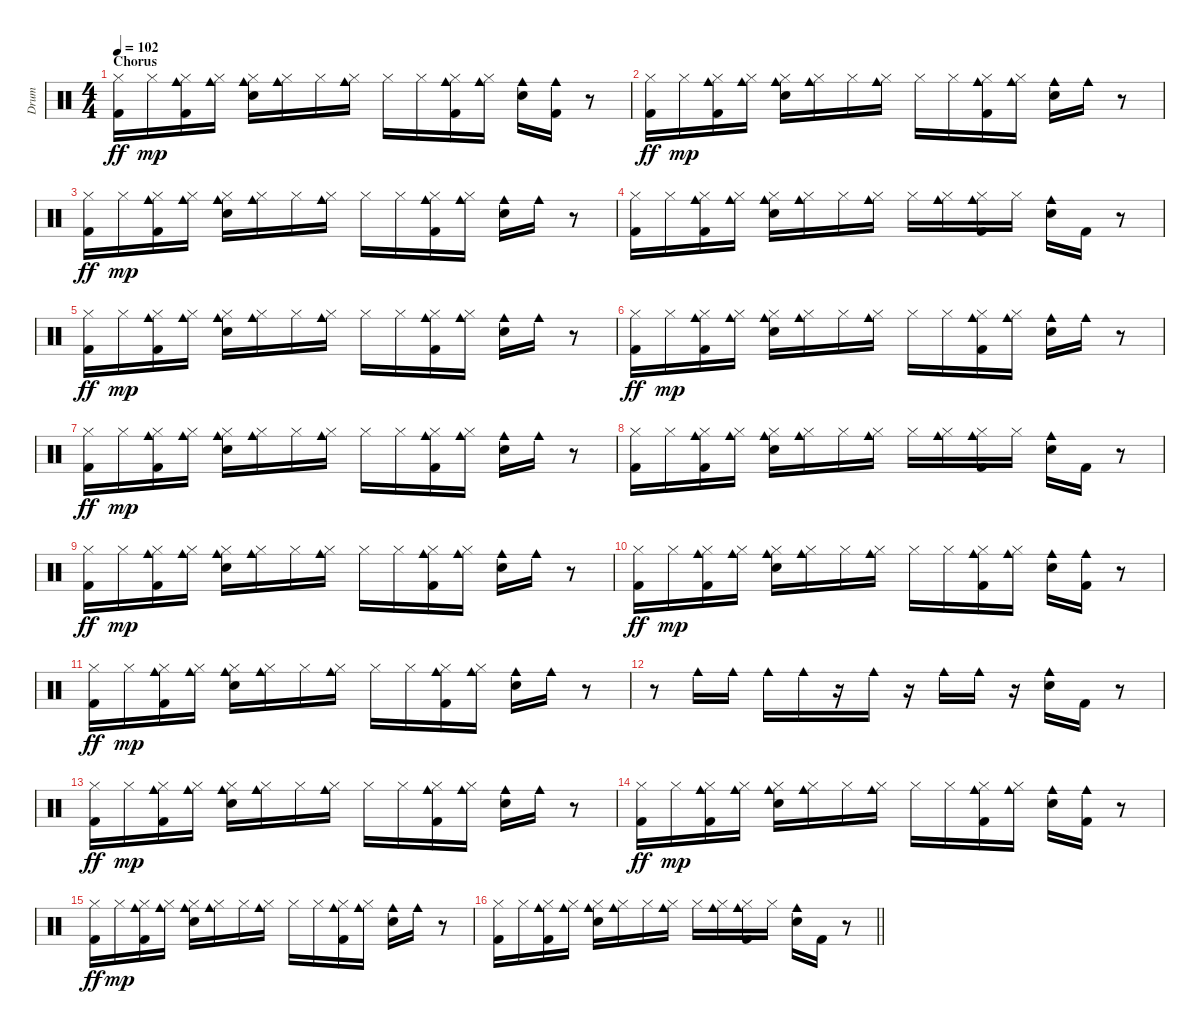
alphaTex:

\track ("Drum" "Drum") {instrument percussion}
\staff {score}
\articulation defaults
\ts (4 4)
\section ("" "Chorus")
\tempo 102
\clef neutral
\ks c
("Hi-Hat (closed)" "Kick (hit) 2").16{dy ff volume 12} "Hi-Hat (closed)".16{dy mp} ("Hi-Hat (closed)" "Kick (hit) 2" "Cowbell medium (hit)").16 ("Hi-Hat (closed)" "Cowbell medium (hit)").16 ("Electric Snare (hit)" "Hi-Hat (closed)" "Cowbell medium (hit)").16 ("Hi-Hat (closed)" "Cowbell medium (hit)").16 "Hi-Hat (closed)".16 ("Hi-Hat (closed)" "Cowbell medium (hit)").16 "Hi-Hat (closed)".16 "Hi-Hat (closed)".16 ("Hi-Hat (closed)" "Kick (hit) 2" "Cowbell medium (hit)").16 ("Hi-Hat (closed)" "Cowbell medium (hit)").16 ("Electric Snare (hit)" "Cowbell medium (hit)").16 ("Cowbell medium (hit)" "Kick (hit) 2").16 r.8 |
("Hi-Hat (closed)" "Kick (hit) 2").16{dy ff volume 12} "Hi-Hat (closed)".16{dy mp} ("Hi-Hat (closed)" "Kick (hit) 2" "Cowbell medium (hit)").16 ("Hi-Hat (closed)" "Cowbell medium (hit)").16 ("Electric Snare (hit)" "Hi-Hat (closed)" "Cowbell medium (hit)").16 ("Hi-Hat (closed)" "Cowbell medium (hit)").16 "Hi-Hat (closed)".16 ("Hi-Hat (closed)" "Cowbell medium (hit)").16 "Hi-Hat (closed)".16 "Hi-Hat (closed)".16 ("Hi-Hat (closed)" "Kick (hit) 2" "Cowbell medium (hit)").16 ("Hi-Hat (closed)" "Cowbell medium (hit)").16 ("Electric Snare (hit)" "Cowbell medium (hit)").16 "Cowbell medium (hit)".16 r.8 |
("Hi-Hat (closed)" "Kick (hit) 2").16{dy ff volume 12} "Hi-Hat (closed)".16{dy mp} ("Hi-Hat (closed)" "Kick (hit) 2" "Cowbell medium (hit)").16 ("Hi-Hat (closed)" "Cowbell medium (hit)").16 ("Electric Snare (hit)" "Hi-Hat (closed)" "Cowbell medium (hit)").16 ("Hi-Hat (closed)" "Cowbell medium (hit)").16 "Hi-Hat (closed)".16 ("Hi-Hat (closed)" "Cowbell medium (hit)").16 "Hi-Hat (closed)".16 "Hi-Hat (closed)".16 ("Hi-Hat (closed)" "Kick (hit) 2" "Cowbell medium (hit)").16 ("Hi-Hat (closed)" "Cowbell medium (hit)").16 ("Electric Snare (hit)" "Cowbell medium (hit)").16 "Cowbell medium (hit)".16 r.8 |
("Kick (hit) 2" "Hi-Hat (closed)").16{volume 12} "Hi-Hat (closed)".16 ("Kick (hit) 2" "Hi-Hat (closed)" "Cowbell medium (hit)").16 ("Hi-Hat (closed)" "Cowbell medium (hit)").16 ("Electric Snare (hit)" "Hi-Hat (closed)" "Cowbell medium (hit)").16 ("Hi-Hat (closed)" "Cowbell medium (hit)").16 "Hi-Hat (closed)".16 ("Hi-Hat (closed)" "Cowbell medium (hit)").16 "Hi-Hat (closed)".16 ("Hi-Hat (closed)" "Cowbell medium (hit)").16 ("Hi-Hat (closed)" "Kick (hit) 2" "Cowbell medium (hit)").16 "Hi-Hat (closed)".16 ("Electric Snare (hit)" "Cowbell medium (hit)").16 "Kick (hit) 2".16 r.8 |
("Hi-Hat (closed)" "Kick (hit) 2").16{dy ff volume 12} "Hi-Hat (closed)".16{dy mp} ("Hi-Hat (closed)" "Kick (hit) 2" "Cowbell medium (hit)").16 ("Hi-Hat (closed)" "Cowbell medium (hit)").16 ("Electric Snare (hit)" "Hi-Hat (closed)" "Cowbell medium (hit)").16 ("Hi-Hat (closed)" "Cowbell medium (hit)").16 "Hi-Hat (closed)".16 ("Hi-Hat (closed)" "Cowbell medium (hit)").16 "Hi-Hat (closed)".16 "Hi-Hat (closed)".16 ("Hi-Hat (closed)" "Kick (hit) 2" "Cowbell medium (hit)").16 ("Hi-Hat (closed)" "Cowbell medium (hit)").16 ("Electric Snare (hit)" "Cowbell medium (hit)").16 "Cowbell medium (hit)".16 r.8 |
("Hi-Hat (closed)" "Kick (hit) 2").16{dy ff volume 12} "Hi-Hat (closed)".16{dy mp} ("Hi-Hat (closed)" "Kick (hit) 2" "Cowbell medium (hit)").16 ("Hi-Hat (closed)" "Cowbell medium (hit)").16 ("Electric Snare (hit)" "Hi-Hat (closed)" "Cowbell medium (hit)").16 ("Hi-Hat (closed)" "Cowbell medium (hit)").16 "Hi-Hat (closed)".16 ("Hi-Hat (closed)" "Cowbell medium (hit)").16 "Hi-Hat (closed)".16 "Hi-Hat (closed)".16 ("Hi-Hat (closed)" "Kick (hit) 2" "Cowbell medium (hit)").16 ("Hi-Hat (closed)" "Cowbell medium (hit)").16 ("Electric Snare (hit)" "Cowbell medium (hit)").16 "Cowbell medium (hit)".16 r.8 |
("Hi-Hat (closed)" "Kick (hit) 2").16{dy ff volume 12} "Hi-Hat (closed)".16{dy mp} ("Hi-Hat (closed)" "Kick (hit) 2" "Cowbell medium (hit)").16 ("Hi-Hat (closed)" "Cowbell medium (hit)").16 ("Electric Snare (hit)" "Hi-Hat (closed)" "Cowbell medium (hit)").16 ("Hi-Hat (closed)" "Cowbell medium (hit)").16 "Hi-Hat (closed)".16 ("Hi-Hat (closed)" "Cowbell medium (hit)").16 "Hi-Hat (closed)".16 "Hi-Hat (closed)".16 ("Hi-Hat (closed)" "Kick (hit) 2" "Cowbell medium (hit)").16 ("Hi-Hat (closed)" "Cowbell medium (hit)").16 ("Electric Snare (hit)" "Cowbell medium (hit)").16 "Cowbell medium (hit)".16 r.8 |
("Kick (hit) 2" "Hi-Hat (closed)").16{volume 12} "Hi-Hat (closed)".16 ("Kick (hit) 2" "Hi-Hat (closed)" "Cowbell medium (hit)").16 ("Hi-Hat (closed)" "Cowbell medium (hit)").16 ("Electric Snare (hit)" "Hi-Hat (closed)" "Cowbell medium (hit)").16 ("Hi-Hat (closed)" "Cowbell medium (hit)").16 "Hi-Hat (closed)".16 ("Hi-Hat (closed)" "Cowbell medium (hit)").16 "Hi-Hat (closed)".16 ("Hi-Hat (closed)" "Cowbell medium (hit)").16 ("Hi-Hat (closed)" "Kick (hit) 2" "Cowbell medium (hit)").16 "Hi-Hat (closed)".16 ("Electric Snare (hit)" "Cowbell medium (hit)").16 "Kick (hit) 2".16 r.8 |
("Hi-Hat (closed)" "Kick (hit) 2").16{dy ff volume 12} "Hi-Hat (closed)".16{dy mp} ("Hi-Hat (closed)" "Kick (hit) 2" "Cowbell medium (hit)").16 ("Hi-Hat (closed)" "Cowbell medium (hit)").16 ("Electric Snare (hit)" "Hi-Hat (closed)" "Cowbell medium (hit)").16 ("Hi-Hat (closed)" "Cowbell medium (hit)").16 "Hi-Hat (closed)".16 ("Hi-Hat (closed)" "Cowbell medium (hit)").16 "Hi-Hat (closed)".16 "Hi-Hat (closed)".16 ("Hi-Hat (closed)" "Kick (hit) 2" "Cowbell medium (hit)").16 ("Hi-Hat (closed)" "Cowbell medium (hit)").16 ("Electric Snare (hit)" "Cowbell medium (hit)").16 "Cowbell medium (hit)".16 r.8 |
("Hi-Hat (closed)" "Kick (hit) 2").16{dy ff volume 12} "Hi-Hat (closed)".16{dy mp} ("Hi-Hat (closed)" "Kick (hit) 2" "Cowbell medium (hit)").16 ("Hi-Hat (closed)" "Cowbell medium (hit)").16 ("Electric Snare (hit)" "Hi-Hat (closed)" "Cowbell medium (hit)").16 ("Hi-Hat (closed)" "Cowbell medium (hit)").16 "Hi-Hat (closed)".16 ("Hi-Hat (closed)" "Cowbell medium (hit)").16 "Hi-Hat (closed)".16 "Hi-Hat (closed)".16 ("Hi-Hat (closed)" "Kick (hit) 2" "Cowbell medium (hit)").16 ("Hi-Hat (closed)" "Cowbell medium (hit)").16 ("Electric Snare (hit)" "Cowbell medium (hit)").16 ("Cowbell medium (hit)" "Kick (hit) 2").16 r.8 |
("Hi-Hat (closed)" "Kick (hit) 2").16{dy ff volume 12} "Hi-Hat (closed)".16{dy mp} ("Hi-Hat (closed)" "Kick (hit) 2" "Cowbell medium (hit)").16 ("Hi-Hat (closed)" "Cowbell medium (hit)").16 ("Electric Snare (hit)" "Hi-Hat (closed)" "Cowbell medium (hit)").16 ("Hi-Hat (closed)" "Cowbell medium (hit)").16 "Hi-Hat (closed)".16 ("Hi-Hat (closed)" "Cowbell medium (hit)").16 "Hi-Hat (closed)".16 "Hi-Hat (closed)".16 ("Hi-Hat (closed)" "Kick (hit) 2" "Cowbell medium (hit)").16 ("Hi-Hat (closed)" "Cowbell medium (hit)").16 ("Electric Snare (hit)" "Cowbell medium (hit)").16 "Cowbell medium (hit)".16 r.8 |
r.8 "Cowbell medium (hit)".16{volume 12} "Cowbell medium (hit)".16 "Cowbell medium (hit)".16 "Cowbell medium (hit)".16 r.16 "Cowbell medium (hit)".16 r.16 "Cowbell medium (hit)".16 "Cowbell medium (hit)".16 r.16 ("Electric Snare (hit)" "Cowbell medium (hit)").16 "Kick (hit) 2".16 r.8 |
("Hi-Hat (closed)" "Kick (hit) 2").16{dy ff volume 12} "Hi-Hat (closed)".16{dy mp} ("Hi-Hat (closed)" "Kick (hit) 2" "Cowbell medium (hit)").16 ("Hi-Hat (closed)" "Cowbell medium (hit)").16 ("Electric Snare (hit)" "Hi-Hat (closed)" "Cowbell medium (hit)").16 ("Hi-Hat (closed)" "Cowbell medium (hit)").16 "Hi-Hat (closed)".16 ("Hi-Hat (closed)" "Cowbell medium (hit)").16 "Hi-Hat (closed)".16 "Hi-Hat (closed)".16 ("Hi-Hat (closed)" "Kick (hit) 2" "Cowbell medium (hit)").16 ("Hi-Hat (closed)" "Cowbell medium (hit)").16 ("Electric Snare (hit)" "Cowbell medium (hit)").16 "Cowbell medium (hit)".16 r.8 |
("Hi-Hat (closed)" "Kick (hit) 2").16{dy ff volume 12} "Hi-Hat (closed)".16{dy mp} ("Hi-Hat (closed)" "Kick (hit) 2" "Cowbell medium (hit)").16 ("Hi-Hat (closed)" "Cowbell medium (hit)").16 ("Electric Snare (hit)" "Hi-Hat (closed)" "Cowbell medium (hit)").16 ("Hi-Hat (closed)" "Cowbell medium (hit)").16 "Hi-Hat (closed)".16 ("Hi-Hat (closed)" "Cowbell medium (hit)").16 "Hi-Hat (closed)".16 "Hi-Hat (closed)".16 ("Hi-Hat (closed)" "Kick (hit) 2" "Cowbell medium (hit)").16 ("Hi-Hat (closed)" "Cowbell medium (hit)").16 ("Electric Snare (hit)" "Cowbell medium (hit)").16 ("Cowbell medium (hit)" "Kick (hit) 2").16 r.8 |
("Hi-Hat (closed)" "Kick (hit) 2").16{dy ff volume 12} "Hi-Hat (closed)".16{dy mp} ("Hi-Hat (closed)" "Kick (hit) 2" "Cowbell medium (hit)").16 ("Hi-Hat (closed)" "Cowbell medium (hit)").16 ("Electric Snare (hit)" "Hi-Hat (closed)" "Cowbell medium (hit)").16 ("Hi-Hat (closed)" "Cowbell medium (hit)").16 "Hi-Hat (closed)".16 ("Hi-Hat (closed)" "Cowbell medium (hit)").16 "Hi-Hat (closed)".16 "Hi-Hat (closed)".16 ("Hi-Hat (closed)" "Kick (hit) 2" "Cowbell medium (hit)").16 ("Hi-Hat (closed)" "Cowbell medium (hit)").16 ("Electric Snare (hit)" "Cowbell medium (hit)").16 "Cowbell medium (hit)".16 r.8 |
\barLineRight lightlight
("Kick (hit) 2" "Hi-Hat (closed)").16{volume 12} "Hi-Hat (closed)".16 ("Kick (hit) 2" "Hi-Hat (closed)" "Cowbell medium (hit)").16 ("Hi-Hat (closed)" "Cowbell medium (hit)").16 ("Electric Snare (hit)" "Hi-Hat (closed)" "Cowbell medium (hit)").16 ("Hi-Hat (closed)" "Cowbell medium (hit)").16 "Hi-Hat (closed)".16 ("Hi-Hat (closed)" "Cowbell medium (hit)").16 "Hi-Hat (closed)".16 ("Hi-Hat (closed)" "Cowbell medium (hit)").16 ("Hi-Hat (closed)" "Kick (hit) 2" "Cowbell medium (hit)").16 "Hi-Hat (closed)".16 ("Electric Snare (hit)" "Cowbell medium (hit)").16 "Kick (hit) 2".16 r.8
